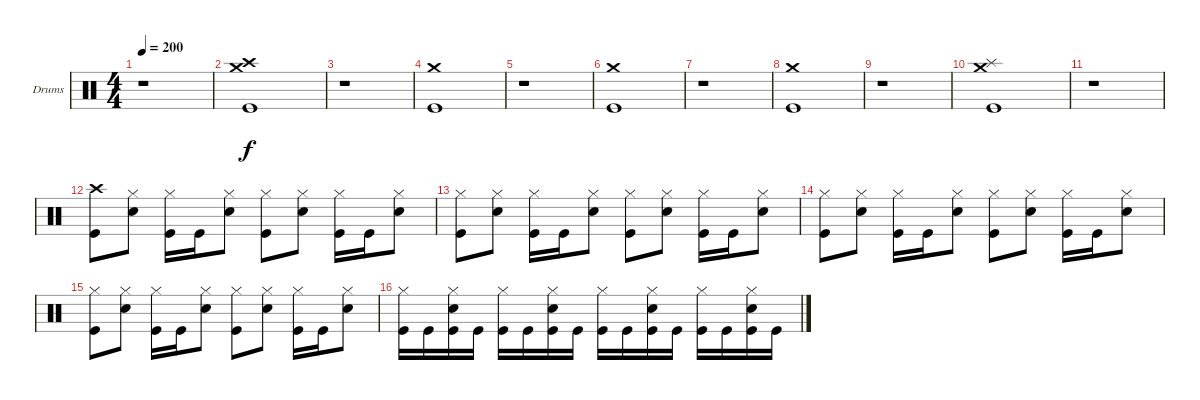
\bracketExtendMode groupsimilarinstruments
\firstSystemTrackNameOrientation horizontal
\otherSystemsTrackNameOrientation horizontal
\track ("Drumkit" "Drums") {instrument percussion}
\staff {score}
\articulation defaults
\ts (4 4)
\tempo 200
\clef neutral
\ks aminor
r.1{dy f} |
("Kick (hit)" "Crash high (hit)" "Crash medium (hit)").1 |
r.1 |
("Kick (hit)" "Crash medium (hit)").1 |
r.1 |
("Kick (hit)" "Crash medium (hit)").1 |
r.1 |
("Kick (hit)" "Crash medium (hit)").1 |
r.1 |
("Kick (hit)" "Splash (hit)" "Crash medium (hit)").1 |
r.1 |
("Kick (hit)" "Crash high (hit)").8 ("Snare (hit) 2" "Hi-Hat (closed)").8 ("Kick (hit)" "Hi-Hat (closed)").16 "Kick (hit)".16 ("Snare (hit) 2" "Hi-Hat (closed)").8 ("Kick (hit)" "Hi-Hat (closed)").8 ("Snare (hit) 2" "Hi-Hat (closed)").8 ("Kick (hit)" "Hi-Hat (closed)").16 "Kick (hit)".16 ("Snare (hit) 2" "Hi-Hat (closed)").8 |
("Kick (hit)" "Hi-Hat (closed)").8 ("Snare (hit) 2" "Hi-Hat (closed)").8 ("Kick (hit)" "Hi-Hat (closed)").16 "Kick (hit)".16 ("Snare (hit) 2" "Hi-Hat (closed)").8 ("Kick (hit)" "Hi-Hat (closed)").8 ("Snare (hit) 2" "Hi-Hat (closed)").8 ("Kick (hit)" "Hi-Hat (closed)").16 "Kick (hit)".16 ("Snare (hit) 2" "Hi-Hat (closed)").8 |
("Kick (hit)" "Hi-Hat (closed)").8 ("Snare (hit) 2" "Hi-Hat (closed)").8 ("Kick (hit)" "Hi-Hat (closed)").16 "Kick (hit)".16 ("Snare (hit) 2" "Hi-Hat (closed)").8 ("Kick (hit)" "Hi-Hat (closed)").8 ("Snare (hit) 2" "Hi-Hat (closed)").8 ("Kick (hit)" "Hi-Hat (closed)").16 "Kick (hit)".16 ("Snare (hit) 2" "Hi-Hat (closed)").8 |
("Kick (hit)" "Hi-Hat (closed)").8 ("Snare (hit) 2" "Hi-Hat (closed)").8 ("Kick (hit)" "Hi-Hat (closed)").16 "Kick (hit)".16 ("Snare (hit) 2" "Hi-Hat (closed)").8 ("Kick (hit)" "Hi-Hat (closed)").8 ("Snare (hit) 2" "Hi-Hat (closed)").8 ("Kick (hit)" "Hi-Hat (closed)").16 "Kick (hit)".16 ("Snare (hit) 2" "Hi-Hat (closed)").8 |
("Kick (hit)" "Hi-Hat (closed)").16 "Kick (hit)".16 ("Kick (hit)" "Snare (hit) 2" "Hi-Hat (closed)").16 "Kick (hit)".16 ("Kick (hit)" "Hi-Hat (closed)").16 "Kick (hit)".16 ("Kick (hit)" "Snare (hit) 2" "Hi-Hat (closed)").16 "Kick (hit)".16 ("Kick (hit)" "Hi-Hat (closed)").16 "Kick (hit)".16 ("Kick (hit)" "Snare (hit) 2" "Hi-Hat (closed)").16 "Kick (hit)".16 ("Kick (hit)" "Hi-Hat (closed)").16 "Kick (hit)".16 ("Kick (hit)" "Snare (hit) 2" "Hi-Hat (closed)").16 "Kick (hit)".16
